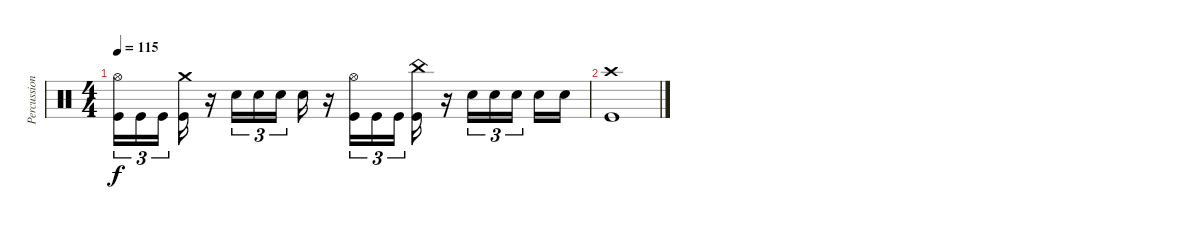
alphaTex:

\track ("Percussion" "Percussion") {instrument percussion}
\staff {score}
\articulation defaults
\ts (4 4)
\tempo 115
\clef neutral
\ks c
("Hi-Hat (open)" "Kick (hit)").16{tu (3 2) dy f} "Kick (hit)".16{tu (3 2)} "Kick (hit)".16{tu (3 2)} ("Crash medium (hit)" "Kick (hit)").16 r.16 "Electric Snare (hit)".16{tu (3 2)} "Electric Snare (hit)".16{tu (3 2)} "Electric Snare (hit)".16{tu (3 2)} "Electric Snare (hit)".16 r.16 ("Hi-Hat (open)" "Kick (hit)").16{tu (3 2)} "Kick (hit)".16{tu (3 2)} "Kick (hit)".16{tu (3 2)} ("China (hit)" "Kick (hit)").16 r.16 "Electric Snare (hit)".16{tu (3 2)} "Electric Snare (hit)".16{tu (3 2)} "Electric Snare (hit)".16{tu (3 2)} "Electric Snare (hit)".16 "Electric Snare (hit)".16 |
("Crash high (hit)" "Kick (hit)").1
